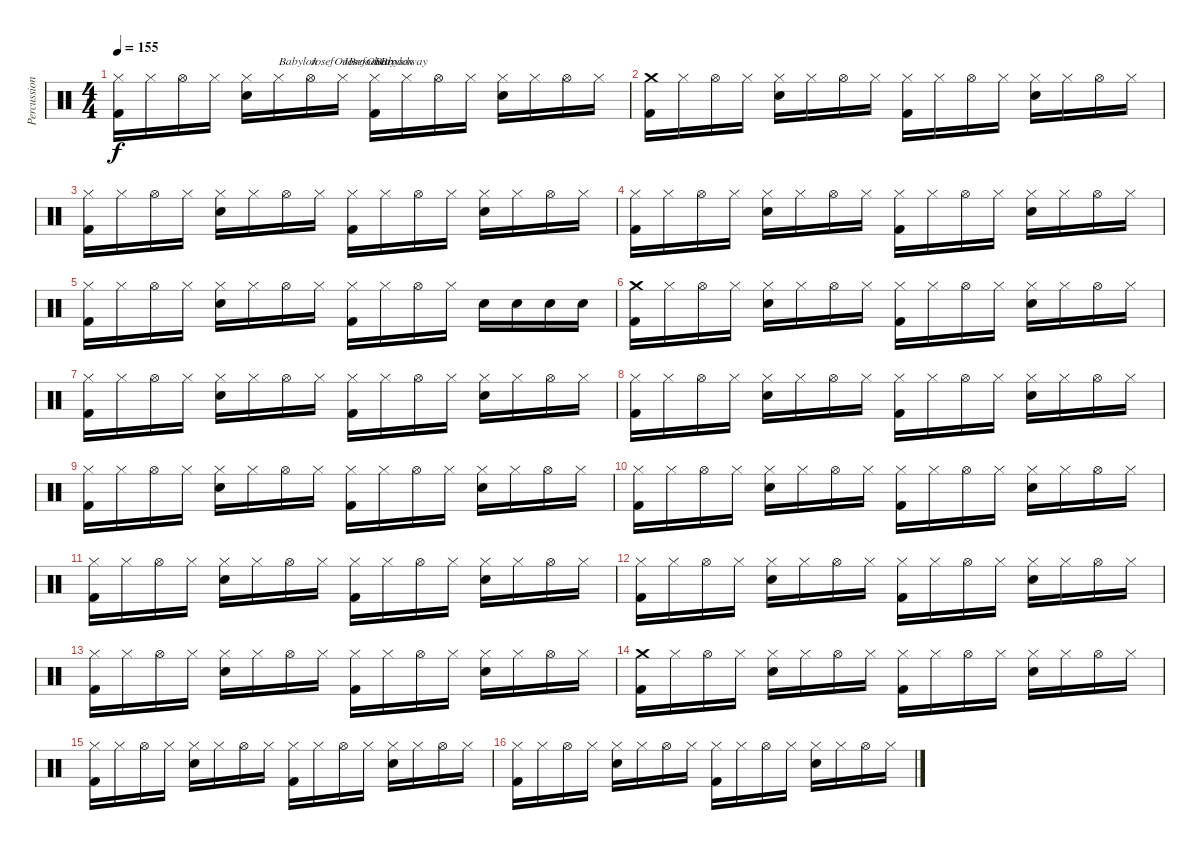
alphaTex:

\track ("Percussion" "Percussion") {instrument percussion}
\staff {score}
\articulation defaults
\ts (4 4)
\tempo 155
\clef neutral
\ks c
("Hi-Hat (closed)" "Kick (hit) 2").16{dy f} "Hi-Hat (closed)".16 "Hi-Hat (open)".16 "Hi-Hat (closed)".16 ("Hi-Hat (closed)" "Electric Snare (hit)").16 "Hi-Hat (closed)".16{txt "Babylon"} "Hi-Hat (open)".16{txt "JosefOnBroadway"} "Hi-Hat (closed)".16{txt "JosefOnBroadway"} ("Hi-Hat (closed)" "Kick (hit) 2").16{txt "Babylon"} "Hi-Hat (closed)".16 "Hi-Hat (open)".16 "Hi-Hat (closed)".16 ("Hi-Hat (closed)" "Electric Snare (hit)").16 "Hi-Hat (closed)".16 "Hi-Hat (open)".16 "Hi-Hat (closed)".16 |
("Crash medium (hit)" "Kick (hit) 2").16 "Hi-Hat (closed)".16 "Hi-Hat (open)".16 "Hi-Hat (closed)".16 ("Hi-Hat (closed)" "Electric Snare (hit)").16 "Hi-Hat (closed)".16 "Hi-Hat (open)".16 "Hi-Hat (closed)".16 ("Hi-Hat (closed)" "Kick (hit) 2").16 "Hi-Hat (closed)".16 "Hi-Hat (open)".16 "Hi-Hat (closed)".16 ("Hi-Hat (closed)" "Electric Snare (hit)").16 "Hi-Hat (closed)".16 "Hi-Hat (open)".16 "Hi-Hat (closed)".16 |
("Hi-Hat (closed)" "Kick (hit) 2").16 "Hi-Hat (closed)".16 "Hi-Hat (open)".16 "Hi-Hat (closed)".16 ("Hi-Hat (closed)" "Electric Snare (hit)").16 "Hi-Hat (closed)".16 "Hi-Hat (open)".16 "Hi-Hat (closed)".16 ("Hi-Hat (closed)" "Kick (hit) 2").16 "Hi-Hat (closed)".16 "Hi-Hat (open)".16 "Hi-Hat (closed)".16 ("Hi-Hat (closed)" "Electric Snare (hit)").16 "Hi-Hat (closed)".16 "Hi-Hat (open)".16 "Hi-Hat (closed)".16 |
("Hi-Hat (closed)" "Kick (hit) 2").16 "Hi-Hat (closed)".16 "Hi-Hat (open)".16 "Hi-Hat (closed)".16 ("Hi-Hat (closed)" "Electric Snare (hit)").16 "Hi-Hat (closed)".16 "Hi-Hat (open)".16 "Hi-Hat (closed)".16 ("Hi-Hat (closed)" "Kick (hit) 2").16 "Hi-Hat (closed)".16 "Hi-Hat (open)".16 "Hi-Hat (closed)".16 ("Hi-Hat (closed)" "Electric Snare (hit)").16 "Hi-Hat (closed)".16 "Hi-Hat (open)".16 "Hi-Hat (closed)".16 |
("Hi-Hat (closed)" "Kick (hit) 2").16 "Hi-Hat (closed)".16 "Hi-Hat (open)".16 "Hi-Hat (closed)".16 ("Hi-Hat (closed)" "Electric Snare (hit)").16 "Hi-Hat (closed)".16 "Hi-Hat (open)".16 "Hi-Hat (closed)".16 ("Hi-Hat (closed)" "Kick (hit) 2").16 "Hi-Hat (closed)".16 "Hi-Hat (open)".16 "Hi-Hat (closed)".16 "Electric Snare (hit)".16 "Electric Snare (hit)".16 "Electric Snare (hit)".16 "Electric Snare (hit)".16 |
("Crash medium (hit)" "Kick (hit) 2").16 "Hi-Hat (closed)".16 "Hi-Hat (open)".16 "Hi-Hat (closed)".16 ("Hi-Hat (closed)" "Electric Snare (hit)").16 "Hi-Hat (closed)".16 "Hi-Hat (open)".16 "Hi-Hat (closed)".16 ("Hi-Hat (closed)" "Kick (hit) 2").16 "Hi-Hat (closed)".16 "Hi-Hat (open)".16 "Hi-Hat (closed)".16 ("Hi-Hat (closed)" "Electric Snare (hit)").16 "Hi-Hat (closed)".16 "Hi-Hat (open)".16 "Hi-Hat (closed)".16 |
("Hi-Hat (closed)" "Kick (hit) 2").16 "Hi-Hat (closed)".16 "Hi-Hat (open)".16 "Hi-Hat (closed)".16 ("Hi-Hat (closed)" "Electric Snare (hit)").16 "Hi-Hat (closed)".16 "Hi-Hat (open)".16 "Hi-Hat (closed)".16 ("Hi-Hat (closed)" "Kick (hit) 2").16 "Hi-Hat (closed)".16 "Hi-Hat (open)".16 "Hi-Hat (closed)".16 ("Hi-Hat (closed)" "Electric Snare (hit)").16 "Hi-Hat (closed)".16 "Hi-Hat (open)".16 "Hi-Hat (closed)".16 |
("Hi-Hat (closed)" "Kick (hit) 2").16 "Hi-Hat (closed)".16 "Hi-Hat (open)".16 "Hi-Hat (closed)".16 ("Hi-Hat (closed)" "Electric Snare (hit)").16 "Hi-Hat (closed)".16 "Hi-Hat (open)".16 "Hi-Hat (closed)".16 ("Hi-Hat (closed)" "Kick (hit) 2").16 "Hi-Hat (closed)".16 "Hi-Hat (open)".16 "Hi-Hat (closed)".16 ("Hi-Hat (closed)" "Electric Snare (hit)").16 "Hi-Hat (closed)".16 "Hi-Hat (open)".16 "Hi-Hat (closed)".16 |
("Hi-Hat (closed)" "Kick (hit) 2").16 "Hi-Hat (closed)".16 "Hi-Hat (open)".16 "Hi-Hat (closed)".16 ("Hi-Hat (closed)" "Electric Snare (hit)").16 "Hi-Hat (closed)".16 "Hi-Hat (open)".16 "Hi-Hat (closed)".16 ("Hi-Hat (closed)" "Kick (hit) 2").16 "Hi-Hat (closed)".16 "Hi-Hat (open)".16 "Hi-Hat (closed)".16 ("Hi-Hat (closed)" "Electric Snare (hit)").16 "Hi-Hat (closed)".16 "Hi-Hat (open)".16 "Hi-Hat (closed)".16 |
("Hi-Hat (closed)" "Kick (hit) 2").16 "Hi-Hat (closed)".16 "Hi-Hat (open)".16 "Hi-Hat (closed)".16 ("Hi-Hat (closed)" "Electric Snare (hit)").16 "Hi-Hat (closed)".16 "Hi-Hat (open)".16 "Hi-Hat (closed)".16 ("Hi-Hat (closed)" "Kick (hit) 2").16 "Hi-Hat (closed)".16 "Hi-Hat (open)".16 "Hi-Hat (closed)".16 ("Hi-Hat (closed)" "Electric Snare (hit)").16 "Hi-Hat (closed)".16 "Hi-Hat (open)".16 "Hi-Hat (closed)".16 |
("Hi-Hat (closed)" "Kick (hit) 2").16 "Hi-Hat (closed)".16 "Hi-Hat (open)".16 "Hi-Hat (closed)".16 ("Hi-Hat (closed)" "Electric Snare (hit)").16 "Hi-Hat (closed)".16 "Hi-Hat (open)".16 "Hi-Hat (closed)".16 ("Hi-Hat (closed)" "Kick (hit) 2").16 "Hi-Hat (closed)".16 "Hi-Hat (open)".16 "Hi-Hat (closed)".16 ("Hi-Hat (closed)" "Electric Snare (hit)").16 "Hi-Hat (closed)".16 "Hi-Hat (open)".16 "Hi-Hat (closed)".16 |
("Hi-Hat (closed)" "Kick (hit) 2").16 "Hi-Hat (closed)".16 "Hi-Hat (open)".16 "Hi-Hat (closed)".16 ("Hi-Hat (closed)" "Electric Snare (hit)").16 "Hi-Hat (closed)".16 "Hi-Hat (open)".16 "Hi-Hat (closed)".16 ("Hi-Hat (closed)" "Kick (hit) 2").16 "Hi-Hat (closed)".16 "Hi-Hat (open)".16 "Hi-Hat (closed)".16 ("Hi-Hat (closed)" "Electric Snare (hit)").16 "Hi-Hat (closed)".16 "Hi-Hat (open)".16 "Hi-Hat (closed)".16 |
("Hi-Hat (closed)" "Kick (hit) 2").16 "Hi-Hat (closed)".16 "Hi-Hat (open)".16 "Hi-Hat (closed)".16 ("Hi-Hat (closed)" "Electric Snare (hit)").16 "Hi-Hat (closed)".16 "Hi-Hat (open)".16 "Hi-Hat (closed)".16 ("Hi-Hat (closed)" "Kick (hit) 2").16 "Hi-Hat (closed)".16 "Hi-Hat (open)".16 "Hi-Hat (closed)".16 ("Hi-Hat (closed)" "Electric Snare (hit)").16 "Hi-Hat (closed)".16 "Hi-Hat (open)".16 "Hi-Hat (closed)".16 |
("Crash medium (hit)" "Kick (hit) 2").16 "Hi-Hat (closed)".16 "Hi-Hat (open)".16 "Hi-Hat (closed)".16 ("Hi-Hat (closed)" "Electric Snare (hit)").16 "Hi-Hat (closed)".16 "Hi-Hat (open)".16 "Hi-Hat (closed)".16 ("Hi-Hat (closed)" "Kick (hit) 2").16 "Hi-Hat (closed)".16 "Hi-Hat (open)".16 "Hi-Hat (closed)".16 ("Hi-Hat (closed)" "Electric Snare (hit)").16 "Hi-Hat (closed)".16 "Hi-Hat (open)".16 "Hi-Hat (closed)".16 |
("Hi-Hat (closed)" "Kick (hit) 2").16 "Hi-Hat (closed)".16 "Hi-Hat (open)".16 "Hi-Hat (closed)".16 ("Hi-Hat (closed)" "Electric Snare (hit)").16 "Hi-Hat (closed)".16 "Hi-Hat (open)".16 "Hi-Hat (closed)".16 ("Hi-Hat (closed)" "Kick (hit) 2").16 "Hi-Hat (closed)".16 "Hi-Hat (open)".16 "Hi-Hat (closed)".16 ("Hi-Hat (closed)" "Electric Snare (hit)").16 "Hi-Hat (closed)".16 "Hi-Hat (open)".16 "Hi-Hat (closed)".16 |
("Hi-Hat (closed)" "Kick (hit) 2").16 "Hi-Hat (closed)".16 "Hi-Hat (open)".16 "Hi-Hat (closed)".16 ("Hi-Hat (closed)" "Electric Snare (hit)").16 "Hi-Hat (closed)".16 "Hi-Hat (open)".16 "Hi-Hat (closed)".16 ("Hi-Hat (closed)" "Kick (hit) 2").16 "Hi-Hat (closed)".16 "Hi-Hat (open)".16 "Hi-Hat (closed)".16 ("Hi-Hat (closed)" "Electric Snare (hit)").16 "Hi-Hat (closed)".16 "Hi-Hat (open)".16 "Hi-Hat (closed)".16
